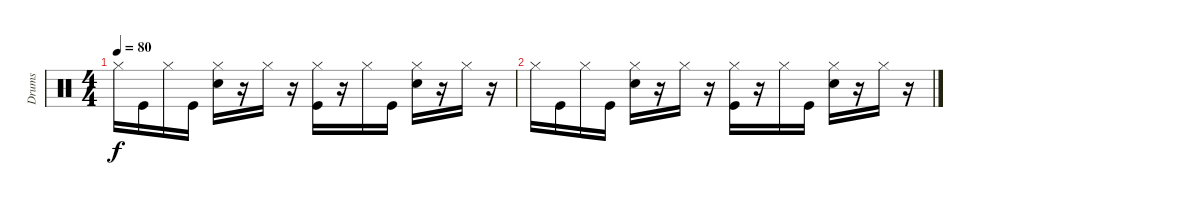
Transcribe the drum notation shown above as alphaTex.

\track ("Drums" "Drums") {instrument percussion}
\staff {score}
\articulation defaults
\ts (4 4)
\tempo 80
\clef neutral
\ks c "Hi-Hat (closed)".16{dy f} "Kick (hit)".16 "Hi-Hat (closed)".16 "Kick (hit)".16
("Hi-Hat (closed)" "Electric Snare (hit)").16 r.16 "Hi-Hat (closed)".16 r.16 ("Hi-Hat (closed)" "Kick (hit)").16 r.16 "Hi-Hat (closed)".16 "Kick (hit)".16 ("Hi-Hat (closed)" "Electric Snare (hit)").16 r.16 "Hi-Hat (closed)".16 r.16 |
"Hi-Hat (closed)".16 "Kick (hit)".16 "Hi-Hat (closed)".16 "Kick (hit)".16 ("Hi-Hat (closed)" "Electric Snare (hit)").16 r.16 "Hi-Hat (closed)".16 r.16 ("Hi-Hat (closed)" "Kick (hit)").16 r.16 "Hi-Hat (closed)".16 "Kick (hit)".16 ("Hi-Hat (closed)" "Electric Snare (hit)").16 r.16 "Hi-Hat (closed)".16 r.16
